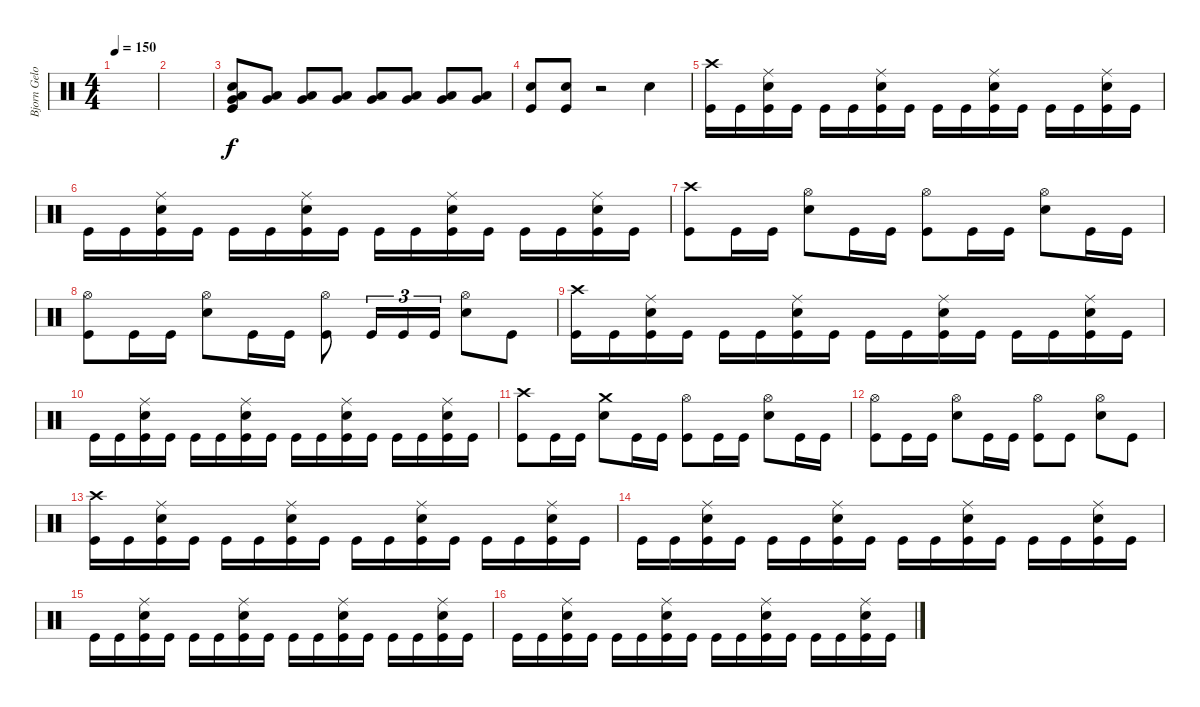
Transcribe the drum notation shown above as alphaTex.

\track ("Bjorn Gelotte-Drum" "Bjorn Gelo") {instrument percussion}
\staff {score}
\articulation defaults
\ts (4 4)
\tempo 150
\clef neutral
\ks c
|
|
("Kick (hit)" "Electric Snare (hit)" "Very Low Tom (hit)" "Low Tom (hit)").8 ("Very Low Tom (hit)" "Low Tom (hit)").8 ("Very Low Tom (hit)" "Low Tom (hit)").8 ("Very Low Tom (hit)" "Low Tom (hit)").8 ("Very Low Tom (hit)" "Low Tom (hit)").8 ("Very Low Tom (hit)" "Low Tom (hit)").8 ("Very Low Tom (hit)" "Low Tom (hit)").8 ("Very Low Tom (hit)" "Low Tom (hit)").8 |
("Kick (hit)" "Electric Snare (hit)").8 ("Kick (hit)" "Electric Snare (hit)").8 r.2 "Electric Snare (hit)".4 |
("Kick (hit)" "Crash high (hit)").16 "Kick (hit)".16 ("Kick (hit)" "Electric Snare (hit)" "Ride (middle)").16 "Kick (hit)".16 "Kick (hit)".16 "Kick (hit)".16 ("Kick (hit)" "Electric Snare (hit)" "Ride (middle)").16 "Kick (hit)".16 "Kick (hit)".16 "Kick (hit)".16 ("Kick (hit)" "Electric Snare (hit)" "Ride (middle)").16 "Kick (hit)".16 "Kick (hit)".16 "Kick (hit)".16 ("Kick (hit)" "Electric Snare (hit)" "Ride (middle)").16 "Kick (hit)".16 |
"Kick (hit)".16 "Kick (hit)".16 ("Kick (hit)" "Electric Snare (hit)" "Ride (middle)").16 "Kick (hit)".16 "Kick (hit)".16 "Kick (hit)".16 ("Kick (hit)" "Electric Snare (hit)" "Ride (middle)").16 "Kick (hit)".16 "Kick (hit)".16 "Kick (hit)".16 ("Kick (hit)" "Electric Snare (hit)" "Ride (middle)").16 "Kick (hit)".16 "Kick (hit)".16 "Kick (hit)".16 ("Kick (hit)" "Electric Snare (hit)" "Ride (middle)").16 "Kick (hit)".16 |
("Kick (hit)" "Crash high (hit)").8 "Kick (hit)".16 "Kick (hit)".16 ("Electric Snare (hit)" "Hi-Hat (open)").8 "Kick (hit)".16 "Kick (hit)".16 ("Kick (hit)" "Hi-Hat (open)").8 "Kick (hit)".16 "Kick (hit)".16 ("Electric Snare (hit)" "Hi-Hat (open)").8 "Kick (hit)".16 "Kick (hit)".16 |
("Kick (hit)" "Hi-Hat (open)").8 "Kick (hit)".16 "Kick (hit)".16 ("Electric Snare (hit)" "Hi-Hat (open)").8 "Kick (hit)".16 "Kick (hit)".16 ("Kick (hit)" "Hi-Hat (open)").8 "Kick (hit)".16{tu (3 2)} "Kick (hit)".16{tu (3 2)} "Kick (hit)".16{tu (3 2)} ("Electric Snare (hit)" "Hi-Hat (open)").8 "Kick (hit)".8 |
("Kick (hit)" "Crash high (hit)").16 "Kick (hit)".16 ("Kick (hit)" "Electric Snare (hit)" "Ride (middle)").16 "Kick (hit)".16 "Kick (hit)".16 "Kick (hit)".16 ("Kick (hit)" "Electric Snare (hit)" "Ride (middle)").16 "Kick (hit)".16 "Kick (hit)".16 "Kick (hit)".16 ("Kick (hit)" "Electric Snare (hit)" "Ride (middle)").16 "Kick (hit)".16 "Kick (hit)".16 "Kick (hit)".16 ("Kick (hit)" "Electric Snare (hit)" "Ride (middle)").16 "Kick (hit)".16 |
"Kick (hit)".16 "Kick (hit)".16 ("Kick (hit)" "Electric Snare (hit)" "Ride (middle)").16 "Kick (hit)".16 "Kick (hit)".16 "Kick (hit)".16 ("Kick (hit)" "Electric Snare (hit)" "Ride (middle)").16 "Kick (hit)".16 "Kick (hit)".16 "Kick (hit)".16 ("Kick (hit)" "Electric Snare (hit)" "Ride (middle)").16 "Kick (hit)".16 "Kick (hit)".16 "Kick (hit)".16 ("Kick (hit)" "Electric Snare (hit)" "Ride (middle)").16 "Kick (hit)".16 |
("Kick (hit)" "Crash high (hit)").8 "Kick (hit)".16 "Kick (hit)".16 ("Electric Snare (hit)" "Crash medium (hit)").8 "Kick (hit)".16 "Kick (hit)".16 ("Kick (hit)" "Hi-Hat (open)").8 "Kick (hit)".16 "Kick (hit)".16 ("Electric Snare (hit)" "Hi-Hat (open)").8 "Kick (hit)".16 "Kick (hit)".16 |
("Kick (hit)" "Hi-Hat (open)").8 "Kick (hit)".16 "Kick (hit)".16 ("Electric Snare (hit)" "Hi-Hat (open)").8 "Kick (hit)".16 "Kick (hit)".16 ("Kick (hit)" "Hi-Hat (open)").8 "Kick (hit)".8 ("Electric Snare (hit)" "Hi-Hat (open)").8 "Kick (hit)".8 |
("Kick (hit)" "Crash high (hit)").16 "Kick (hit)".16 ("Kick (hit)" "Electric Snare (hit)" "Ride (middle)").16 "Kick (hit)".16 "Kick (hit)".16 "Kick (hit)".16 ("Kick (hit)" "Electric Snare (hit)" "Ride (middle)").16 "Kick (hit)".16 "Kick (hit)".16 "Kick (hit)".16 ("Kick (hit)" "Electric Snare (hit)" "Ride (middle)").16 "Kick (hit)".16 "Kick (hit)".16 "Kick (hit)".16 ("Kick (hit)" "Electric Snare (hit)" "Ride (middle)").16 "Kick (hit)".16 |
"Kick (hit)".16 "Kick (hit)".16 ("Kick (hit)" "Electric Snare (hit)" "Ride (middle)").16 "Kick (hit)".16 "Kick (hit)".16 "Kick (hit)".16 ("Kick (hit)" "Electric Snare (hit)" "Ride (middle)").16 "Kick (hit)".16 "Kick (hit)".16 "Kick (hit)".16 ("Kick (hit)" "Electric Snare (hit)" "Ride (middle)").16 "Kick (hit)".16 "Kick (hit)".16 "Kick (hit)".16 ("Kick (hit)" "Electric Snare (hit)" "Ride (middle)").16 "Kick (hit)".16 |
"Kick (hit)".16 "Kick (hit)".16 ("Kick (hit)" "Electric Snare (hit)" "Ride (middle)").16 "Kick (hit)".16 "Kick (hit)".16 "Kick (hit)".16 ("Kick (hit)" "Electric Snare (hit)" "Ride (middle)").16 "Kick (hit)".16 "Kick (hit)".16 "Kick (hit)".16 ("Kick (hit)" "Electric Snare (hit)" "Ride (middle)").16 "Kick (hit)".16 "Kick (hit)".16 "Kick (hit)".16 ("Kick (hit)" "Electric Snare (hit)" "Ride (middle)").16 "Kick (hit)".16 |
"Kick (hit)".16 "Kick (hit)".16 ("Kick (hit)" "Electric Snare (hit)" "Ride (middle)").16 "Kick (hit)".16 "Kick (hit)".16 "Kick (hit)".16 ("Kick (hit)" "Electric Snare (hit)" "Ride (middle)").16 "Kick (hit)".16 "Kick (hit)".16 "Kick (hit)".16 ("Kick (hit)" "Electric Snare (hit)" "Ride (middle)").16 "Kick (hit)".16 "Kick (hit)".16 "Kick (hit)".16 ("Kick (hit)" "Electric Snare (hit)" "Ride (middle)").16 "Kick (hit)".16
